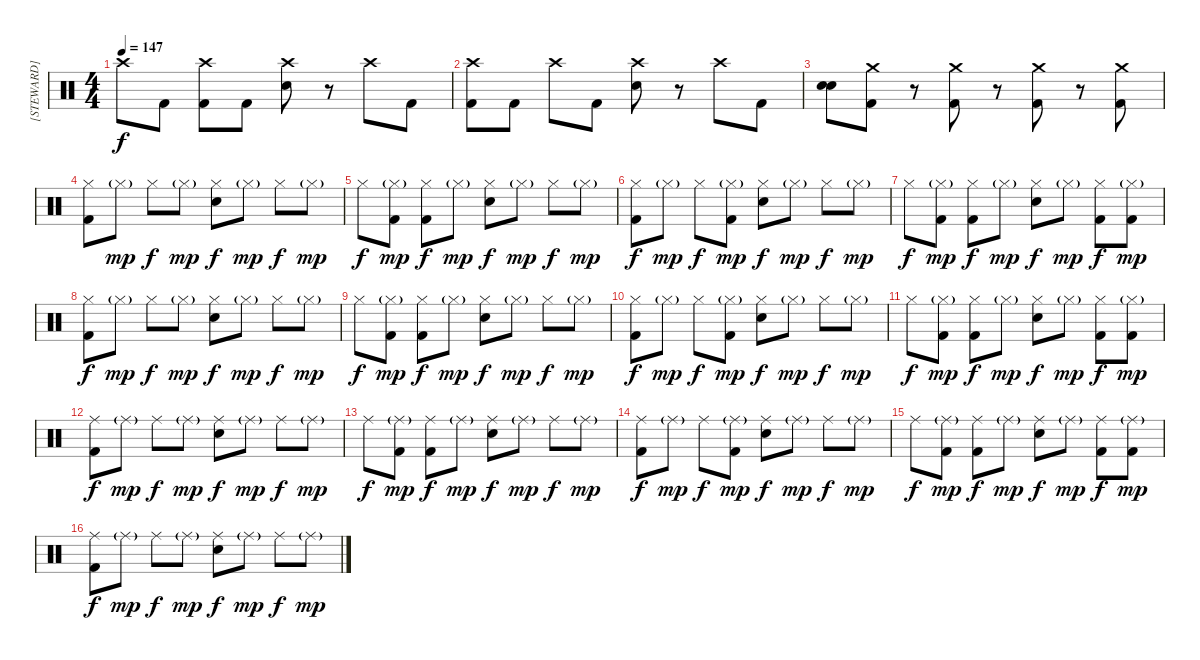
\track ("[STEWARD]" "[STEWARD]") {instrument percussion}
\staff {score}
\articulation defaults
\ts (4 4)
\tempo 147
\clef neutral
\ks c "Crash high (hit)".8{dy f} "Kick (hit) 2".8
("Crash high (hit)" "Kick (hit) 2").8 "Kick (hit) 2".8 ("Crash high (hit)" "Electric Snare (hit)").8 r.8 "Crash high (hit)".8 "Kick (hit) 2".8 |
("Crash high (hit)" "Kick (hit) 2").8 "Kick (hit) 2".8 "Crash high (hit)".8 "Kick (hit) 2".8 ("Crash high (hit)" "Electric Snare (hit)").8 r.8 "Crash high (hit)".8 "Kick (hit) 2".8 |
("Electric Snare (hit)" "Snare (hit) 2").8 ("Crash medium (hit)" "Kick (hit) 2").8 r.8 ("Crash medium (hit)" "Kick (hit) 2").8 r.8 ("Crash medium (hit)" "Kick (hit) 2").8 r.8 ("Crash medium (hit)" "Kick (hit) 2").8 |
("Hi-Hat (closed)" "Kick (hit) 2").8 "Hi-Hat (closed)"{g}.8{dy mp} "Hi-Hat (closed)".8{dy f} "Hi-Hat (closed)"{g}.8{dy mp} ("Hi-Hat (closed)" "Snare (hit) 2").8{dy f} "Hi-Hat (closed)"{g}.8{dy mp} "Hi-Hat (closed)".8{dy f} "Hi-Hat (closed)"{g}.8{dy mp} |
"Hi-Hat (closed)".8{dy f} ("Hi-Hat (closed)"{g} "Kick (hit) 2").8{dy mp} ("Hi-Hat (closed)" "Kick (hit) 2").8{dy f} "Hi-Hat (closed)"{g}.8{dy mp} ("Hi-Hat (closed)" "Snare (hit) 2").8{dy f} "Hi-Hat (closed)"{g}.8{dy mp} "Hi-Hat (closed)".8{dy f} "Hi-Hat (closed)"{g}.8{dy mp} |
("Hi-Hat (closed)" "Kick (hit) 2").8{dy f} "Hi-Hat (closed)"{g}.8{dy mp} "Hi-Hat (closed)".8{dy f} ("Hi-Hat (closed)"{g} "Kick (hit) 2").8{dy mp} ("Hi-Hat (closed)" "Snare (hit) 2").8{dy f} "Hi-Hat (closed)"{g}.8{dy mp} "Hi-Hat (closed)".8{dy f} "Hi-Hat (closed)"{g}.8{dy mp} |
"Hi-Hat (closed)".8{dy f} ("Hi-Hat (closed)"{g} "Kick (hit) 2").8{dy mp} ("Hi-Hat (closed)" "Kick (hit) 2").8{dy f} "Hi-Hat (closed)"{g}.8{dy mp} ("Hi-Hat (closed)" "Snare (hit) 2").8{dy f} "Hi-Hat (closed)"{g}.8{dy mp} ("Hi-Hat (closed)" "Kick (hit) 2").8{dy f} ("Hi-Hat (closed)"{g} "Kick (hit) 2").8{dy mp} |
("Hi-Hat (closed)" "Kick (hit) 2").8{dy f} "Hi-Hat (closed)"{g}.8{dy mp} "Hi-Hat (closed)".8{dy f} "Hi-Hat (closed)"{g}.8{dy mp} ("Hi-Hat (closed)" "Snare (hit) 2").8{dy f} "Hi-Hat (closed)"{g}.8{dy mp} "Hi-Hat (closed)".8{dy f} "Hi-Hat (closed)"{g}.8{dy mp} |
"Hi-Hat (closed)".8{dy f} ("Hi-Hat (closed)"{g} "Kick (hit) 2").8{dy mp} ("Hi-Hat (closed)" "Kick (hit) 2").8{dy f} "Hi-Hat (closed)"{g}.8{dy mp} ("Hi-Hat (closed)" "Snare (hit) 2").8{dy f} "Hi-Hat (closed)"{g}.8{dy mp} "Hi-Hat (closed)".8{dy f} "Hi-Hat (closed)"{g}.8{dy mp} |
("Hi-Hat (closed)" "Kick (hit) 2").8{dy f} "Hi-Hat (closed)"{g}.8{dy mp} "Hi-Hat (closed)".8{dy f} ("Hi-Hat (closed)"{g} "Kick (hit) 2").8{dy mp} ("Hi-Hat (closed)" "Snare (hit) 2").8{dy f} "Hi-Hat (closed)"{g}.8{dy mp} "Hi-Hat (closed)".8{dy f} "Hi-Hat (closed)"{g}.8{dy mp} |
"Hi-Hat (closed)".8{dy f} ("Hi-Hat (closed)"{g} "Kick (hit) 2").8{dy mp} ("Hi-Hat (closed)" "Kick (hit) 2").8{dy f} "Hi-Hat (closed)"{g}.8{dy mp} ("Hi-Hat (closed)" "Snare (hit) 2").8{dy f} "Hi-Hat (closed)"{g}.8{dy mp} ("Hi-Hat (closed)" "Kick (hit) 2").8{dy f} ("Hi-Hat (closed)"{g} "Kick (hit) 2").8{dy mp} |
("Ride (middle)" "Kick (hit) 2").8{dy f} "Ride (middle)"{g}.8{dy mp} "Ride (middle)".8{dy f} "Ride (middle)"{g}.8{dy mp} ("Ride (middle)" "Snare (hit) 2").8{dy f} "Ride (middle)"{g}.8{dy mp} "Ride (middle)".8{dy f} "Ride (middle)"{g}.8{dy mp} |
"Ride (middle)".8{dy f} ("Ride (middle)"{g} "Kick (hit) 2").8{dy mp} ("Ride (middle)" "Kick (hit) 2").8{dy f} "Ride (middle)"{g}.8{dy mp} ("Ride (middle)" "Snare (hit) 2").8{dy f} "Ride (middle)"{g}.8{dy mp} "Ride (middle)".8{dy f} "Ride (middle)"{g}.8{dy mp} |
("Ride (middle)" "Kick (hit) 2").8{dy f} "Ride (middle)"{g}.8{dy mp} "Ride (middle)".8{dy f} ("Ride (middle)"{g} "Kick (hit) 2").8{dy mp} ("Ride (middle)" "Snare (hit) 2").8{dy f} "Ride (middle)"{g}.8{dy mp} "Ride (middle)".8{dy f} "Ride (middle)"{g}.8{dy mp} |
"Ride (middle)".8{dy f} ("Ride (middle)"{g} "Kick (hit) 2").8{dy mp} ("Ride (middle)" "Kick (hit) 2").8{dy f} "Ride (middle)"{g}.8{dy mp} ("Ride (middle)" "Snare (hit) 2").8{dy f} "Ride (middle)"{g}.8{dy mp} ("Ride (middle)" "Kick (hit) 2").8{dy f} ("Ride (middle)"{g} "Kick (hit) 2").8{dy mp} |
("Ride (middle)" "Kick (hit) 2").8{dy f} "Ride (middle)"{g}.8{dy mp} "Ride (middle)".8{dy f} "Ride (middle)"{g}.8{dy mp} ("Ride (middle)" "Snare (hit) 2").8{dy f} "Ride (middle)"{g}.8{dy mp} "Ride (middle)".8{dy f} "Ride (middle)"{g}.8{dy mp}
